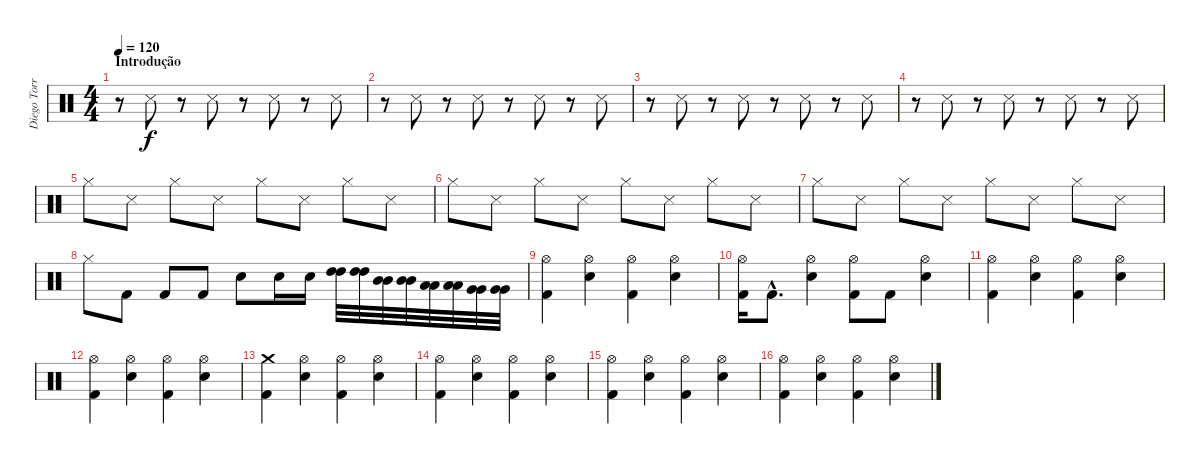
\track ("Diego Torres [Bateria]" "Diego Torr") {instrument percussion}
\staff {score}
\articulation defaults
\ts (4 4)
\section ("" "Introdução")
\tempo 120
\clef neutral
\ks c
r.8{dy f} "Snare (side stick) 3".8 r.8 "Snare (side stick) 3".8 r.8 "Snare (side stick) 3".8 r.8 "Snare (side stick) 3".8 |
r.8 "Snare (side stick) 3".8 r.8 "Snare (side stick) 3".8 r.8 "Snare (side stick) 3".8 r.8 "Snare (side stick) 3".8 |
r.8 "Snare (side stick) 3".8 r.8 "Snare (side stick) 3".8 r.8 "Snare (side stick) 3".8 r.8 "Snare (side stick) 3".8 |
r.8 "Snare (side stick) 3".8 r.8 "Snare (side stick) 3".8 r.8 "Snare (side stick) 3".8 r.8 "Snare (side stick) 3".8 |
"Hi-Hat (closed)".8 "Snare (side stick) 3".8 "Hi-Hat (closed)".8 "Snare (side stick) 3".8 "Hi-Hat (closed)".8 "Snare (side stick) 3".8 "Hi-Hat (closed)".8 "Snare (side stick) 3".8 |
"Hi-Hat (closed)".8 "Snare (side stick) 3".8 "Hi-Hat (closed)".8 "Snare (side stick) 3".8 "Hi-Hat (closed)".8 "Snare (side stick) 3".8 "Hi-Hat (closed)".8 "Snare (side stick) 3".8 |
"Hi-Hat (closed)".8 "Snare (side stick) 3".8 "Hi-Hat (closed)".8 "Snare (side stick) 3".8 "Hi-Hat (closed)".8 "Snare (side stick) 3".8 "Hi-Hat (closed)".8 "Snare (side stick) 3".8 |
"Hi-Hat (closed)".8 "Kick (hit) 2".8 "Kick (hit) 2".8 "Kick (hit) 2".8 "Electric Snare (hit)".8 "Electric Snare (hit)".16 "Electric Snare (hit)".16 ("High Tom (hit)" "High Tom (hit)").32 ("High Tom (hit)" "High Tom (hit)").32 ("Mid Tom (hit)" "Mid Tom (hit)").32 ("Mid Tom (hit)" "Mid Tom (hit)").32 ("Low Tom (hit)" "Low Tom (hit)").32 ("Low Tom (hit)" "Low Tom (hit)").32 ("Very Low Tom (hit)" "Very Low Tom (hit)").32 ("Very Low Tom (hit)" "Very Low Tom (hit)").32 |
("Hi-Hat (open)" "Kick (hit) 2").4 ("Hi-Hat (open)" "Electric Snare (hit)").4 ("Hi-Hat (open)" "Kick (hit) 2").4 ("Hi-Hat (open)" "Electric Snare (hit)").4 |
("Hi-Hat (open)" "Kick (hit) 2").16 "Kick (hit) 2"{hac}.8{d} ("Hi-Hat (open)" "Electric Snare (hit)").4 ("Hi-Hat (open)" "Kick (hit) 2").8 "Kick (hit) 2".8 ("Hi-Hat (open)" "Electric Snare (hit)").4 |
("Hi-Hat (open)" "Kick (hit) 2").4 ("Hi-Hat (open)" "Electric Snare (hit)").4 ("Hi-Hat (open)" "Kick (hit) 2").4 ("Hi-Hat (open)" "Electric Snare (hit)").4 |
("Hi-Hat (open)" "Kick (hit) 2").4 ("Hi-Hat (open)" "Electric Snare (hit)").4 ("Hi-Hat (open)" "Kick (hit) 2").4 ("Hi-Hat (open)" "Electric Snare (hit)").4 |
("Crash medium (hit)" "Kick (hit) 2").4 ("Hi-Hat (open)" "Electric Snare (hit)").4 ("Hi-Hat (open)" "Kick (hit) 2").4 ("Hi-Hat (open)" "Electric Snare (hit)").4 |
("Hi-Hat (open)" "Kick (hit) 2").4 ("Hi-Hat (open)" "Electric Snare (hit)").4 ("Hi-Hat (open)" "Kick (hit) 2").4 ("Hi-Hat (open)" "Electric Snare (hit)").4 |
("Hi-Hat (open)" "Kick (hit) 2").4 ("Hi-Hat (open)" "Electric Snare (hit)").4 ("Hi-Hat (open)" "Kick (hit) 2").4 ("Hi-Hat (open)" "Electric Snare (hit)").4 |
("Hi-Hat (open)" "Kick (hit) 2").4 ("Hi-Hat (open)" "Electric Snare (hit)").4 ("Hi-Hat (open)" "Kick (hit) 2").4 ("Hi-Hat (open)" "Electric Snare (hit)").4
